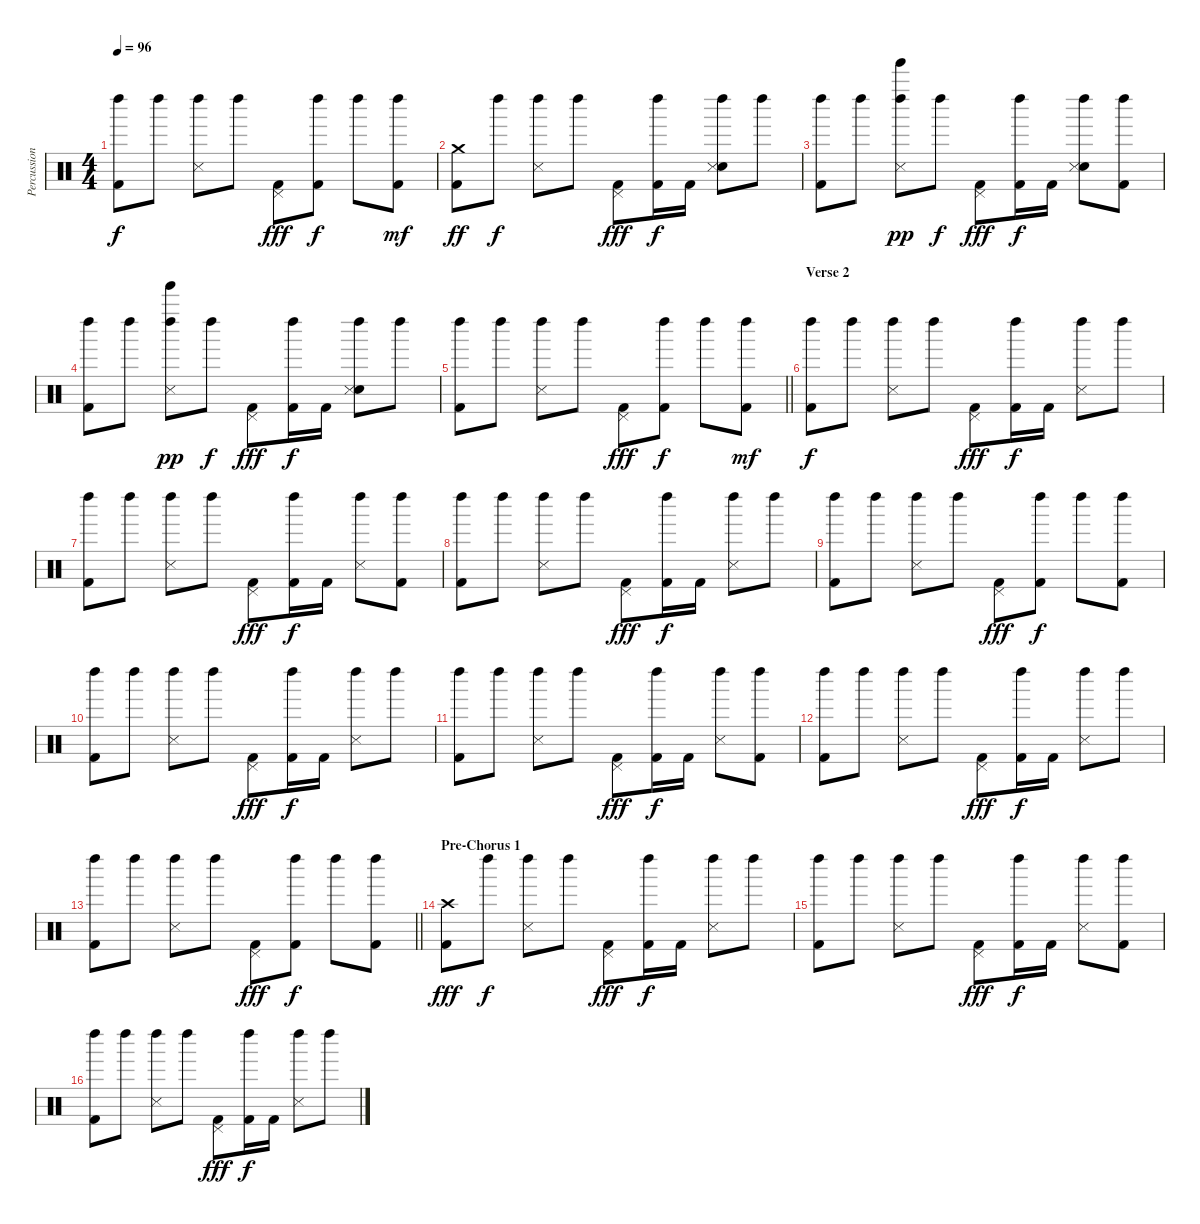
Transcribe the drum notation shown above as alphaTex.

\track ("Percussion" "Percussion") {instrument percussion}
\staff {score}
\articulation defaults
\ts (4 4)
\tempo 96
\clef neutral
\ks c
("Left Maraca (hit)" "Kick (hit) 2").8{dy f} "Left Maraca (hit)".8 ("Left Maraca (hit)" "Snare (side stick) 3").8 "Left Maraca (hit)".8 ("Pedal Hi-Hat (hit)" "Kick (hit) 2").8{dy fff} ("Left Maraca (hit)" "Kick (hit) 2").8{dy f} "Left Maraca (hit)".8 ("Left Maraca (hit)" "Kick (hit) 2").8{dy mf} |
("Crash medium (hit)" "Kick (hit) 2").8{dy ff} "Left Maraca (hit)".8{dy f} ("Left Maraca (hit)" "Snare (side stick) 3").8 "Left Maraca (hit)".8 ("Pedal Hi-Hat (hit)" "Kick (hit) 2").8{dy fff} ("Left Maraca (hit)" "Kick (hit) 2").16{dy f} "Kick (hit) 2".16 ("Left Maraca (hit)" "Hand Clap (hit)" "Snare (side stick) 3").8 "Left Maraca (hit)".8 |
("Left Maraca (hit)" "Kick (hit) 2").8 "Left Maraca (hit)".8 ("Left Maraca (hit)" "Tinkle Bell (hit)" "Snare (side stick) 3").8{dy pp} "Left Maraca (hit)".8{dy f} ("Pedal Hi-Hat (hit)" "Kick (hit) 2").8{dy fff} ("Left Maraca (hit)" "Kick (hit) 2").16{dy f} "Kick (hit) 2".16 ("Left Maraca (hit)" "Hand Clap (hit)" "Snare (side stick) 3").8 ("Left Maraca (hit)" "Kick (hit) 2").8 |
("Left Maraca (hit)" "Kick (hit) 2").8 "Left Maraca (hit)".8 ("Left Maraca (hit)" "Tinkle Bell (hit)" "Snare (side stick) 3").8{dy pp} "Left Maraca (hit)".8{dy f} ("Pedal Hi-Hat (hit)" "Kick (hit) 2").8{dy fff} ("Left Maraca (hit)" "Kick (hit) 2").16{dy f} "Kick (hit) 2".16 ("Left Maraca (hit)" "Hand Clap (hit)" "Snare (side stick) 3").8 "Left Maraca (hit)".8 |
\barLineRight lightlight
("Left Maraca (hit)" "Kick (hit) 2").8 "Left Maraca (hit)".8 ("Left Maraca (hit)" "Snare (side stick) 3").8 "Left Maraca (hit)".8 ("Pedal Hi-Hat (hit)" "Kick (hit) 2").8{dy fff} ("Left Maraca (hit)" "Kick (hit) 2").8{dy f} "Left Maraca (hit)".8 ("Left Maraca (hit)" "Kick (hit) 2").8{dy mf} |
\section ("" "Verse 2")
("Left Maraca (hit)" "Kick (hit) 2").8{dy f} "Left Maraca (hit)".8 ("Left Maraca (hit)" "Snare (side stick) 3").8 "Left Maraca (hit)".8 ("Pedal Hi-Hat (hit)" "Kick (hit) 2").8{dy fff} ("Left Maraca (hit)" "Kick (hit) 2").16{dy f} "Kick (hit) 2".16 ("Left Maraca (hit)" "Snare (side stick) 3").8 "Left Maraca (hit)".8 |
("Left Maraca (hit)" "Kick (hit) 2").8 "Left Maraca (hit)".8 ("Left Maraca (hit)" "Snare (side stick) 3").8 "Left Maraca (hit)".8 ("Pedal Hi-Hat (hit)" "Kick (hit) 2").8{dy fff} ("Left Maraca (hit)" "Kick (hit) 2").16{dy f} "Kick (hit) 2".16 ("Left Maraca (hit)" "Snare (side stick) 3").8 ("Left Maraca (hit)" "Kick (hit) 2").8 |
("Left Maraca (hit)" "Kick (hit) 2").8 "Left Maraca (hit)".8 ("Left Maraca (hit)" "Snare (side stick) 3").8 "Left Maraca (hit)".8 ("Pedal Hi-Hat (hit)" "Kick (hit) 2").8{dy fff} ("Left Maraca (hit)" "Kick (hit) 2").16{dy f} "Kick (hit) 2".16 ("Left Maraca (hit)" "Snare (side stick) 3").8 "Left Maraca (hit)".8 |
("Left Maraca (hit)" "Kick (hit) 2").8 "Left Maraca (hit)".8 ("Left Maraca (hit)" "Snare (side stick) 3").8 "Left Maraca (hit)".8 ("Pedal Hi-Hat (hit)" "Kick (hit) 2").8{dy fff} ("Left Maraca (hit)" "Kick (hit) 2").8{dy f} "Left Maraca (hit)".8 ("Left Maraca (hit)" "Kick (hit) 2").8 |
("Left Maraca (hit)" "Kick (hit) 2").8 "Left Maraca (hit)".8 ("Left Maraca (hit)" "Snare (side stick) 3").8 "Left Maraca (hit)".8 ("Pedal Hi-Hat (hit)" "Kick (hit) 2").8{dy fff} ("Left Maraca (hit)" "Kick (hit) 2").16{dy f} "Kick (hit) 2".16 ("Left Maraca (hit)" "Snare (side stick) 3").8 "Left Maraca (hit)".8 |
("Left Maraca (hit)" "Kick (hit) 2").8 "Left Maraca (hit)".8 ("Left Maraca (hit)" "Snare (side stick) 3").8 "Left Maraca (hit)".8 ("Pedal Hi-Hat (hit)" "Kick (hit) 2").8{dy fff} ("Left Maraca (hit)" "Kick (hit) 2").16{dy f} "Kick (hit) 2".16 ("Left Maraca (hit)" "Snare (side stick) 3").8 ("Left Maraca (hit)" "Kick (hit) 2").8 |
("Left Maraca (hit)" "Kick (hit) 2").8 "Left Maraca (hit)".8 ("Left Maraca (hit)" "Snare (side stick) 3").8 "Left Maraca (hit)".8 ("Pedal Hi-Hat (hit)" "Kick (hit) 2").8{dy fff} ("Left Maraca (hit)" "Kick (hit) 2").16{dy f} "Kick (hit) 2".16 ("Left Maraca (hit)" "Snare (side stick) 3").8 "Left Maraca (hit)".8 |
\barLineRight lightlight
("Left Maraca (hit)" "Kick (hit) 2").8 "Left Maraca (hit)".8 ("Left Maraca (hit)" "Snare (side stick) 3").8 "Left Maraca (hit)".8 ("Pedal Hi-Hat (hit)" "Kick (hit) 2").8{dy fff} ("Left Maraca (hit)" "Kick (hit) 2").8{dy f} "Left Maraca (hit)".8 ("Left Maraca (hit)" "Kick (hit) 2").8 |
\section ("" "Pre-Chorus 1")
("Crash high (hit)" "Kick (hit) 2").8{dy fff} "Left Maraca (hit)".8{dy f} ("Left Maraca (hit)" "Snare (side stick) 3").8 "Left Maraca (hit)".8 ("Pedal Hi-Hat (hit)" "Kick (hit) 2").8{dy fff} ("Left Maraca (hit)" "Kick (hit) 2").16{dy f} "Kick (hit) 2".16 ("Left Maraca (hit)" "Snare (side stick) 3").8 "Left Maraca (hit)".8 |
("Left Maraca (hit)" "Kick (hit) 2").8 "Left Maraca (hit)".8 ("Left Maraca (hit)" "Snare (side stick) 3").8 "Left Maraca (hit)".8 ("Pedal Hi-Hat (hit)" "Kick (hit) 2").8{dy fff} ("Left Maraca (hit)" "Kick (hit) 2").16{dy f} "Kick (hit) 2".16 ("Left Maraca (hit)" "Snare (side stick) 3").8 ("Left Maraca (hit)" "Kick (hit) 2").8 |
("Left Maraca (hit)" "Kick (hit) 2").8 "Left Maraca (hit)".8 ("Left Maraca (hit)" "Snare (side stick) 3").8 "Left Maraca (hit)".8 ("Pedal Hi-Hat (hit)" "Kick (hit) 2").8{dy fff} ("Left Maraca (hit)" "Kick (hit) 2").16{dy f} "Kick (hit) 2".16 ("Left Maraca (hit)" "Snare (side stick) 3").8 "Left Maraca (hit)".8
